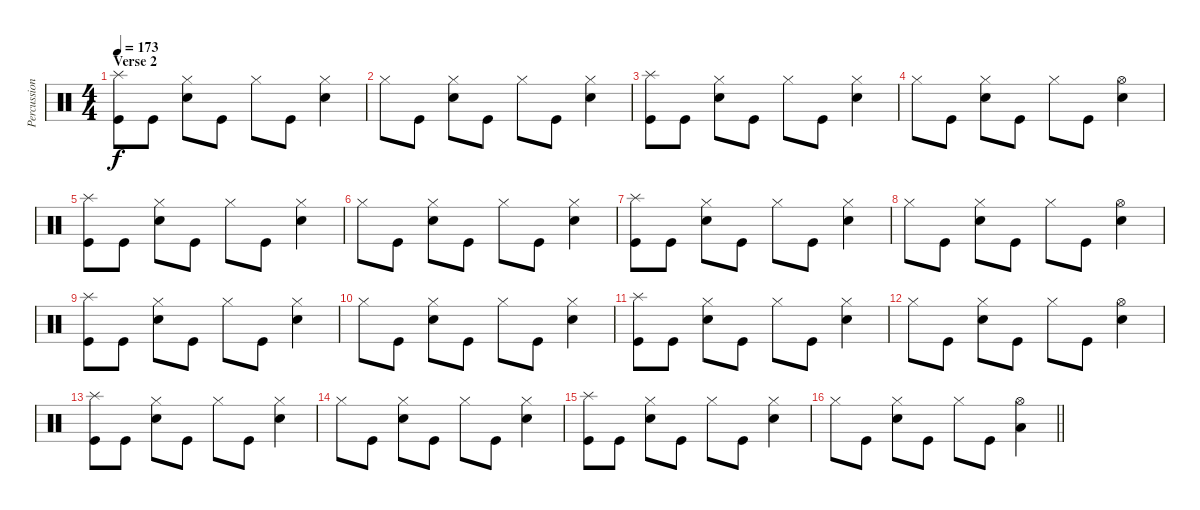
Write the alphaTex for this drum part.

\track ("Percussion" "Percussion") {instrument percussion}
\staff {score}
\articulation defaults
\ts (4 4)
\section ("" "Verse 2")
\tempo 173
\clef neutral
\ks c
("Splash (hit)" "Kick (hit)").8{dy f} "Kick (hit)".8 ("Hi-Hat (closed)" "Electric Snare (hit)").8 "Kick (hit)".8 "Hi-Hat (closed)".8 "Kick (hit)".8 ("Hi-Hat (closed)" "Electric Snare (hit)").4 |
"Hi-Hat (closed)".8 "Kick (hit)".8 ("Hi-Hat (closed)" "Electric Snare (hit)").8 "Kick (hit)".8 "Hi-Hat (closed)".8 "Kick (hit)".8 ("Hi-Hat (closed)" "Electric Snare (hit)").4 |
("Splash (hit)" "Kick (hit)").8 "Kick (hit)".8 ("Hi-Hat (closed)" "Electric Snare (hit)").8 "Kick (hit)".8 "Hi-Hat (closed)".8 "Kick (hit)".8 ("Hi-Hat (closed)" "Electric Snare (hit)").4 |
"Hi-Hat (closed)".8 "Kick (hit)".8 ("Hi-Hat (closed)" "Electric Snare (hit)").8 "Kick (hit)".8 "Hi-Hat (closed)".8 "Kick (hit)".8 ("Hi-Hat (open)" "Electric Snare (hit)").4 |
("Splash (hit)" "Kick (hit)").8 "Kick (hit)".8 ("Hi-Hat (closed)" "Electric Snare (hit)").8 "Kick (hit)".8 "Hi-Hat (closed)".8 "Kick (hit)".8 ("Hi-Hat (closed)" "Electric Snare (hit)").4 |
"Hi-Hat (closed)".8 "Kick (hit)".8 ("Hi-Hat (closed)" "Electric Snare (hit)").8 "Kick (hit)".8 "Hi-Hat (closed)".8 "Kick (hit)".8 ("Hi-Hat (closed)" "Electric Snare (hit)").4 |
("Splash (hit)" "Kick (hit)").8 "Kick (hit)".8 ("Hi-Hat (closed)" "Electric Snare (hit)").8 "Kick (hit)".8 "Hi-Hat (closed)".8 "Kick (hit)".8 ("Hi-Hat (closed)" "Electric Snare (hit)").4 |
"Hi-Hat (closed)".8 "Kick (hit)".8 ("Hi-Hat (closed)" "Electric Snare (hit)").8 "Kick (hit)".8 "Hi-Hat (closed)".8 "Kick (hit)".8 ("Hi-Hat (open)" "Electric Snare (hit)").4 |
("Splash (hit)" "Kick (hit)").8 "Kick (hit)".8 ("Hi-Hat (closed)" "Electric Snare (hit)").8 "Kick (hit)".8 "Hi-Hat (closed)".8 "Kick (hit)".8 ("Hi-Hat (closed)" "Electric Snare (hit)").4 |
"Hi-Hat (closed)".8 "Kick (hit)".8 ("Hi-Hat (closed)" "Electric Snare (hit)").8 "Kick (hit)".8 "Hi-Hat (closed)".8 "Kick (hit)".8 ("Hi-Hat (closed)" "Electric Snare (hit)").4 |
("Splash (hit)" "Kick (hit)").8 "Kick (hit)".8 ("Hi-Hat (closed)" "Electric Snare (hit)").8 "Kick (hit)".8 "Hi-Hat (closed)".8 "Kick (hit)".8 ("Hi-Hat (closed)" "Electric Snare (hit)").4 |
"Hi-Hat (closed)".8 "Kick (hit)".8 ("Hi-Hat (closed)" "Electric Snare (hit)").8 "Kick (hit)".8 "Hi-Hat (closed)".8 "Kick (hit)".8 ("Hi-Hat (open)" "Electric Snare (hit)").4 |
("Splash (hit)" "Kick (hit)").8 "Kick (hit)".8 ("Hi-Hat (closed)" "Electric Snare (hit)").8 "Kick (hit)".8 "Hi-Hat (closed)".8 "Kick (hit)".8 ("Hi-Hat (closed)" "Electric Snare (hit)").4 |
"Hi-Hat (closed)".8 "Kick (hit)".8 ("Hi-Hat (closed)" "Electric Snare (hit)").8 "Kick (hit)".8 "Hi-Hat (closed)".8 "Kick (hit)".8 ("Hi-Hat (closed)" "Electric Snare (hit)").4 |
("Splash (hit)" "Kick (hit)").8 "Kick (hit)".8 ("Hi-Hat (closed)" "Electric Snare (hit)").8 "Kick (hit)".8 "Hi-Hat (closed)".8 "Kick (hit)".8 ("Hi-Hat (closed)" "Electric Snare (hit)").4 |
\barLineRight lightlight "Hi-Hat (closed)".8 "Kick (hit)".8
("Hi-Hat (closed)" "Electric Snare (hit)").8 "Kick (hit)".8 "Hi-Hat (closed)".8 "Kick (hit)".8 ("Hi-Hat (open)" "Low Tom (hit)").4
